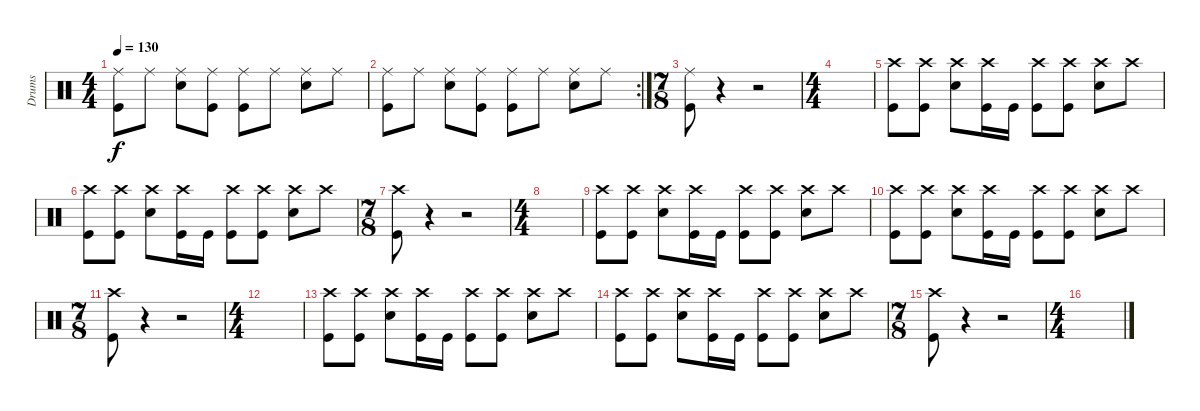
\track ("Drums" "Drums") {instrument percussion}
\staff {score}
\articulation defaults
\ts (4 4)
\tempo 130
\clef neutral
\ks c
("Ride (middle)" "Kick (hit)").8{dy f} "Ride (middle)".8 ("Ride (middle)" "Snare (hit) 2").8 ("Ride (middle)" "Kick (hit)").8 ("Ride (middle)" "Kick (hit)").8 "Ride (middle)".8 ("Ride (middle)" "Snare (hit) 2").8 "Ride (middle)".8 |
\rc 2
("Ride (middle)" "Kick (hit)").8 "Ride (middle)".8 ("Ride (middle)" "Snare (hit) 2").8 ("Ride (middle)" "Kick (hit)").8 ("Ride (middle)" "Kick (hit)").8 "Ride (middle)".8 ("Ride (middle)" "Snare (hit) 2").8 "Ride (middle)".8 |
\ts (7 8)
("Ride (middle)" "Kick (hit)").8 r.4 r.2 |
\ts (4 4)
|
("Crash high (hit)" "Kick (hit)").8 ("Crash high (hit)" "Kick (hit)").8 ("Crash high (hit)" "Snare (hit) 2").8 ("Crash high (hit)" "Kick (hit)").16 "Kick (hit)".16 ("Crash high (hit)" "Kick (hit)").8 ("Crash high (hit)" "Kick (hit)").8 ("Crash high (hit)" "Snare (hit) 2").8 "Crash high (hit)".8 |
("Crash high (hit)" "Kick (hit)").8 ("Crash high (hit)" "Kick (hit)").8 ("Crash high (hit)" "Snare (hit) 2").8 ("Crash high (hit)" "Kick (hit)").16 "Kick (hit)".16 ("Crash high (hit)" "Kick (hit)").8 ("Crash high (hit)" "Kick (hit)").8 ("Crash high (hit)" "Snare (hit) 2").8 "Crash high (hit)".8 |
\ts (7 8)
("Crash high (hit)" "Kick (hit)").8 r.4 r.2 |
\ts (4 4)
|
("Crash high (hit)" "Kick (hit)").8 ("Crash high (hit)" "Kick (hit)").8 ("Crash high (hit)" "Snare (hit) 2").8 ("Crash high (hit)" "Kick (hit)").16 "Kick (hit)".16 ("Crash high (hit)" "Kick (hit)").8 ("Crash high (hit)" "Kick (hit)").8 ("Crash high (hit)" "Snare (hit) 2").8 "Crash high (hit)".8 |
("Crash high (hit)" "Kick (hit)").8 ("Crash high (hit)" "Kick (hit)").8 ("Crash high (hit)" "Snare (hit) 2").8 ("Crash high (hit)" "Kick (hit)").16 "Kick (hit)".16 ("Crash high (hit)" "Kick (hit)").8 ("Crash high (hit)" "Kick (hit)").8 ("Crash high (hit)" "Snare (hit) 2").8 "Crash high (hit)".8 |
\ts (7 8)
("Crash high (hit)" "Kick (hit)").8 r.4 r.2 |
\ts (4 4)
|
("Crash high (hit)" "Kick (hit)").8 ("Crash high (hit)" "Kick (hit)").8 ("Crash high (hit)" "Snare (hit) 2").8 ("Crash high (hit)" "Kick (hit)").16 "Kick (hit)".16 ("Crash high (hit)" "Kick (hit)").8 ("Crash high (hit)" "Kick (hit)").8 ("Crash high (hit)" "Snare (hit) 2").8 "Crash high (hit)".8 |
("Crash high (hit)" "Kick (hit)").8 ("Crash high (hit)" "Kick (hit)").8 ("Crash high (hit)" "Snare (hit) 2").8 ("Crash high (hit)" "Kick (hit)").16 "Kick (hit)".16 ("Crash high (hit)" "Kick (hit)").8 ("Crash high (hit)" "Kick (hit)").8 ("Crash high (hit)" "Snare (hit) 2").8 "Crash high (hit)".8 |
\ts (7 8)
("Crash high (hit)" "Kick (hit)").8 r.4 r.2 |
\ts (4 4)
